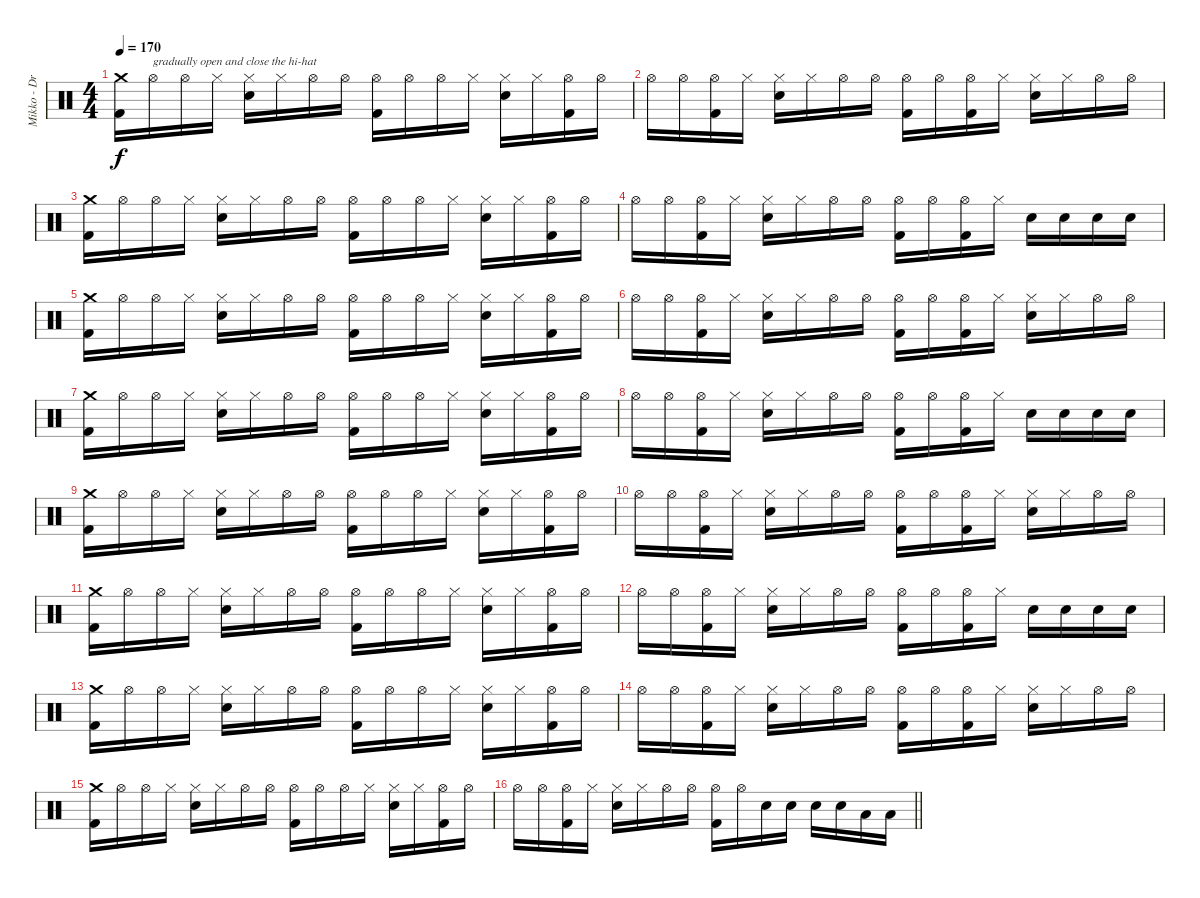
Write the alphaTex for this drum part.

\track ("Mikko - Drums" "Mikko - Dr") {instrument percussion}
\staff {score}
\articulation defaults
\ts (4 4)
\tempo 170
\clef neutral
\ks c
("Crash medium (hit)" "Kick (hit) 2").16{dy f} "Hi-Hat (open)".16{txt "gradually open and close the hi-hat"} "Hi-Hat (open)".16 "Hi-Hat (closed)".16 ("Hi-Hat (closed)" "Snare (hit) 2").16 "Hi-Hat (closed)".16 "Hi-Hat (open)".16 "Hi-Hat (open)".16 ("Hi-Hat (open)" "Kick (hit) 2").16 "Hi-Hat (open)".16 "Hi-Hat (open)".16 "Hi-Hat (closed)".16 ("Hi-Hat (closed)" "Snare (hit) 2").16 "Hi-Hat (closed)".16 ("Hi-Hat (open)" "Kick (hit) 2").16 "Hi-Hat (open)".16 |
"Hi-Hat (open)".16 "Hi-Hat (open)".16 ("Hi-Hat (open)" "Kick (hit) 2").16 "Hi-Hat (closed)".16 ("Hi-Hat (closed)" "Snare (hit) 2").16 "Hi-Hat (closed)".16 "Hi-Hat (open)".16 "Hi-Hat (open)".16 ("Hi-Hat (open)" "Kick (hit) 2").16 "Hi-Hat (open)".16 ("Hi-Hat (open)" "Kick (hit) 2").16 "Hi-Hat (closed)".16 ("Hi-Hat (closed)" "Snare (hit) 2").16 "Hi-Hat (closed)".16 "Hi-Hat (open)".16 "Hi-Hat (open)".16 |
("Crash medium (hit)" "Kick (hit) 2").16 "Hi-Hat (open)".16 "Hi-Hat (open)".16 "Hi-Hat (closed)".16 ("Hi-Hat (closed)" "Snare (hit) 2").16 "Hi-Hat (closed)".16 "Hi-Hat (open)".16 "Hi-Hat (open)".16 ("Hi-Hat (open)" "Kick (hit) 2").16 "Hi-Hat (open)".16 "Hi-Hat (open)".16 "Hi-Hat (closed)".16 ("Hi-Hat (closed)" "Snare (hit) 2").16 "Hi-Hat (closed)".16 ("Hi-Hat (open)" "Kick (hit) 2").16 "Hi-Hat (open)".16 |
"Hi-Hat (open)".16 "Hi-Hat (open)".16 ("Hi-Hat (open)" "Kick (hit) 2").16 "Hi-Hat (closed)".16 ("Hi-Hat (closed)" "Snare (hit) 2").16 "Hi-Hat (closed)".16 "Hi-Hat (open)".16 "Hi-Hat (open)".16 ("Hi-Hat (open)" "Kick (hit) 2").16 "Hi-Hat (open)".16 ("Hi-Hat (open)" "Kick (hit) 2").16 "Hi-Hat (closed)".16 "Snare (hit) 2".16 "Snare (hit) 2".16 "Snare (hit) 2".16 "Snare (hit) 2".16 |
("Crash medium (hit)" "Kick (hit) 2").16 "Hi-Hat (open)".16 "Hi-Hat (open)".16 "Hi-Hat (closed)".16 ("Hi-Hat (closed)" "Snare (hit) 2").16 "Hi-Hat (closed)".16 "Hi-Hat (open)".16 "Hi-Hat (open)".16 ("Hi-Hat (open)" "Kick (hit) 2").16 "Hi-Hat (open)".16 "Hi-Hat (open)".16 "Hi-Hat (closed)".16 ("Hi-Hat (closed)" "Snare (hit) 2").16 "Hi-Hat (closed)".16 ("Hi-Hat (open)" "Kick (hit) 2").16 "Hi-Hat (open)".16 |
"Hi-Hat (open)".16 "Hi-Hat (open)".16 ("Hi-Hat (open)" "Kick (hit) 2").16 "Hi-Hat (closed)".16 ("Hi-Hat (closed)" "Snare (hit) 2").16 "Hi-Hat (closed)".16 "Hi-Hat (open)".16 "Hi-Hat (open)".16 ("Hi-Hat (open)" "Kick (hit) 2").16 "Hi-Hat (open)".16 ("Hi-Hat (open)" "Kick (hit) 2").16 "Hi-Hat (closed)".16 ("Hi-Hat (closed)" "Snare (hit) 2").16 "Hi-Hat (closed)".16 "Hi-Hat (open)".16 "Hi-Hat (open)".16 |
("Crash medium (hit)" "Kick (hit) 2").16 "Hi-Hat (open)".16 "Hi-Hat (open)".16 "Hi-Hat (closed)".16 ("Hi-Hat (closed)" "Snare (hit) 2").16 "Hi-Hat (closed)".16 "Hi-Hat (open)".16 "Hi-Hat (open)".16 ("Hi-Hat (open)" "Kick (hit) 2").16 "Hi-Hat (open)".16 "Hi-Hat (open)".16 "Hi-Hat (closed)".16 ("Hi-Hat (closed)" "Snare (hit) 2").16 "Hi-Hat (closed)".16 ("Hi-Hat (open)" "Kick (hit) 2").16 "Hi-Hat (open)".16 |
"Hi-Hat (open)".16 "Hi-Hat (open)".16 ("Hi-Hat (open)" "Kick (hit) 2").16 "Hi-Hat (closed)".16 ("Hi-Hat (closed)" "Snare (hit) 2").16 "Hi-Hat (closed)".16 "Hi-Hat (open)".16 "Hi-Hat (open)".16 ("Hi-Hat (open)" "Kick (hit) 2").16 "Hi-Hat (open)".16 ("Hi-Hat (open)" "Kick (hit) 2").16 "Hi-Hat (closed)".16 "Snare (hit) 2".16 "Snare (hit) 2".16 "Snare (hit) 2".16 "Snare (hit) 2".16 |
("Crash medium (hit)" "Kick (hit) 2").16 "Hi-Hat (open)".16 "Hi-Hat (open)".16 "Hi-Hat (closed)".16 ("Hi-Hat (closed)" "Snare (hit) 2").16 "Hi-Hat (closed)".16 "Hi-Hat (open)".16 "Hi-Hat (open)".16 ("Hi-Hat (open)" "Kick (hit) 2").16 "Hi-Hat (open)".16 "Hi-Hat (open)".16 "Hi-Hat (closed)".16 ("Hi-Hat (closed)" "Snare (hit) 2").16 "Hi-Hat (closed)".16 ("Hi-Hat (open)" "Kick (hit) 2").16 "Hi-Hat (open)".16 |
"Hi-Hat (open)".16 "Hi-Hat (open)".16 ("Hi-Hat (open)" "Kick (hit) 2").16 "Hi-Hat (closed)".16 ("Hi-Hat (closed)" "Snare (hit) 2").16 "Hi-Hat (closed)".16 "Hi-Hat (open)".16 "Hi-Hat (open)".16 ("Hi-Hat (open)" "Kick (hit) 2").16 "Hi-Hat (open)".16 ("Hi-Hat (open)" "Kick (hit) 2").16 "Hi-Hat (closed)".16 ("Hi-Hat (closed)" "Snare (hit) 2").16 "Hi-Hat (closed)".16 "Hi-Hat (open)".16 "Hi-Hat (open)".16 |
("Crash medium (hit)" "Kick (hit) 2").16 "Hi-Hat (open)".16 "Hi-Hat (open)".16 "Hi-Hat (closed)".16 ("Hi-Hat (closed)" "Snare (hit) 2").16 "Hi-Hat (closed)".16 "Hi-Hat (open)".16 "Hi-Hat (open)".16 ("Hi-Hat (open)" "Kick (hit) 2").16 "Hi-Hat (open)".16 "Hi-Hat (open)".16 "Hi-Hat (closed)".16 ("Hi-Hat (closed)" "Snare (hit) 2").16 "Hi-Hat (closed)".16 ("Hi-Hat (open)" "Kick (hit) 2").16 "Hi-Hat (open)".16 |
"Hi-Hat (open)".16 "Hi-Hat (open)".16 ("Hi-Hat (open)" "Kick (hit) 2").16 "Hi-Hat (closed)".16 ("Hi-Hat (closed)" "Snare (hit) 2").16 "Hi-Hat (closed)".16 "Hi-Hat (open)".16 "Hi-Hat (open)".16 ("Hi-Hat (open)" "Kick (hit) 2").16 "Hi-Hat (open)".16 ("Hi-Hat (open)" "Kick (hit) 2").16 "Hi-Hat (closed)".16 "Snare (hit) 2".16 "Snare (hit) 2".16 "Snare (hit) 2".16 "Snare (hit) 2".16 |
("Crash medium (hit)" "Kick (hit) 2").16 "Hi-Hat (open)".16 "Hi-Hat (open)".16 "Hi-Hat (closed)".16 ("Hi-Hat (closed)" "Snare (hit) 2").16 "Hi-Hat (closed)".16 "Hi-Hat (open)".16 "Hi-Hat (open)".16 ("Hi-Hat (open)" "Kick (hit) 2").16 "Hi-Hat (open)".16 "Hi-Hat (open)".16 "Hi-Hat (closed)".16 ("Hi-Hat (closed)" "Snare (hit) 2").16 "Hi-Hat (closed)".16 ("Hi-Hat (open)" "Kick (hit) 2").16 "Hi-Hat (open)".16 |
"Hi-Hat (open)".16 "Hi-Hat (open)".16 ("Hi-Hat (open)" "Kick (hit) 2").16 "Hi-Hat (closed)".16 ("Hi-Hat (closed)" "Snare (hit) 2").16 "Hi-Hat (closed)".16 "Hi-Hat (open)".16 "Hi-Hat (open)".16 ("Hi-Hat (open)" "Kick (hit) 2").16 "Hi-Hat (open)".16 ("Hi-Hat (open)" "Kick (hit) 2").16 "Hi-Hat (closed)".16 ("Hi-Hat (closed)" "Snare (hit) 2").16 "Hi-Hat (closed)".16 "Hi-Hat (open)".16 "Hi-Hat (open)".16 |
("Crash medium (hit)" "Kick (hit) 2").16 "Hi-Hat (open)".16 "Hi-Hat (open)".16 "Hi-Hat (closed)".16 ("Hi-Hat (closed)" "Snare (hit) 2").16 "Hi-Hat (closed)".16 "Hi-Hat (open)".16 "Hi-Hat (open)".16 ("Hi-Hat (open)" "Kick (hit) 2").16 "Hi-Hat (open)".16 "Hi-Hat (open)".16 "Hi-Hat (closed)".16 ("Hi-Hat (closed)" "Snare (hit) 2").16 "Hi-Hat (closed)".16 ("Hi-Hat (open)" "Kick (hit) 2").16 "Hi-Hat (open)".16 |
\barLineRight lightlight "Hi-Hat (open)".16 "Hi-Hat (open)".16
("Hi-Hat (open)" "Kick (hit) 2").16 "Hi-Hat (closed)".16 ("Hi-Hat (closed)" "Snare (hit) 2").16 "Hi-Hat (closed)".16 "Hi-Hat (open)".16 "Hi-Hat (open)".16 ("Hi-Hat (open)" "Kick (hit) 2").16 "Hi-Hat (open)".16 "Snare (hit) 2".16 "Snare (hit) 2".16 "Snare (hit) 2".16 "Snare (hit) 2".16 "Low Tom (hit)".16 "Low Tom (hit)".16
